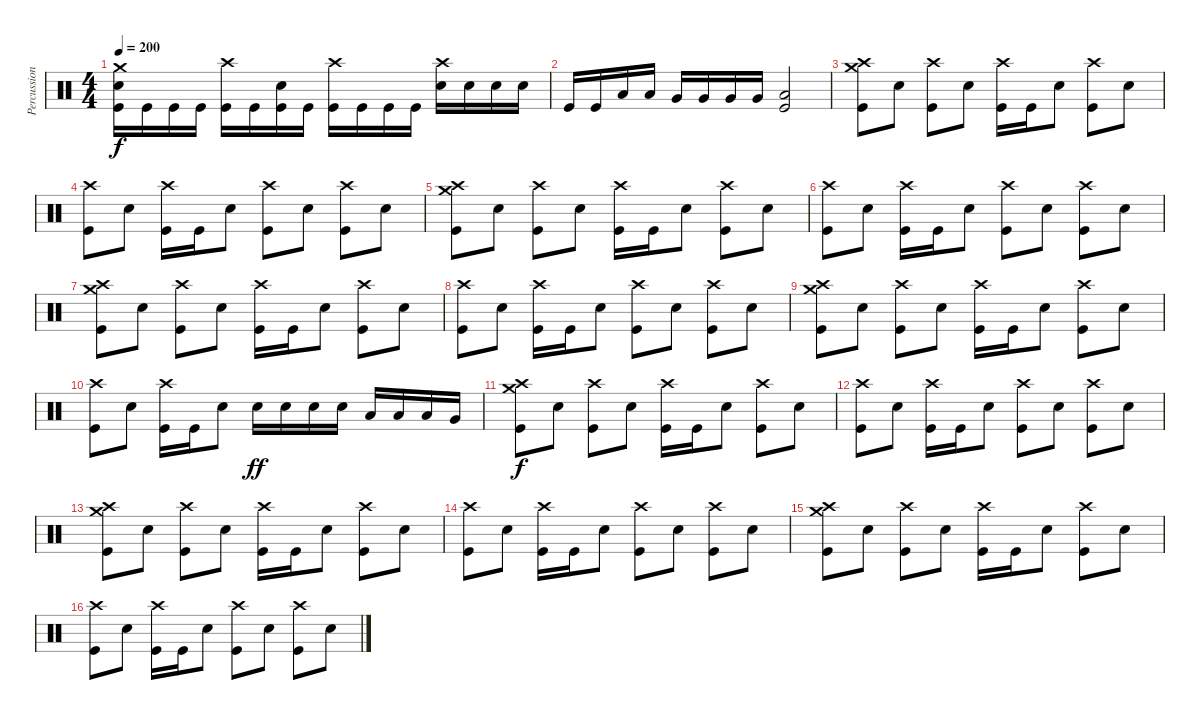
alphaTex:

\track ("Percussion" "Percussion") {instrument percussion}
\staff {score}
\articulation defaults
\ts (4 4)
\tempo 200
\clef neutral
\ks c
("Crash medium (hit)" "Snare (hit) 2" "Kick (hit)").16{dy f} "Kick (hit)".16 "Kick (hit)".16 "Kick (hit)".16 ("Crash high (hit)" "Kick (hit)").16 "Kick (hit)".16 ("Snare (hit) 2" "Kick (hit)").16 "Kick (hit)".16 ("Crash high (hit)" "Kick (hit)").16 "Kick (hit)".16 "Kick (hit)".16 "Kick (hit)".16 ("Crash high (hit)" "Snare (hit) 2").16 "Snare (hit) 2".16 "Snare (hit) 2".16 "Snare (hit) 2".16 |
"Kick (hit)".16 "Kick (hit)".16 "Low Tom (hit)".16 "Low Tom (hit)".16 "Very Low Tom (hit)".16 "Very Low Tom (hit)".16 "Very Low Tom (hit)".16 "Very Low Tom (hit)".16 ("Kick (hit)" "Low Floor Tom (hit)").2 |
("Crash high (hit)" "Kick (hit)" "Crash medium (hit)").8 "Snare (hit) 2".8 ("Crash high (hit)" "Kick (hit)").8 "Snare (hit) 2".8 ("Crash high (hit)" "Kick (hit)").16 "Kick (hit)".16 "Snare (hit) 2".8 ("Crash high (hit)" "Kick (hit)").8 "Snare (hit) 2".8 |
("Crash high (hit)" "Kick (hit)").8 "Snare (hit) 2".8 ("Crash high (hit)" "Kick (hit)").16 "Kick (hit)".16 "Snare (hit) 2".8 ("Crash high (hit)" "Kick (hit)").8 "Snare (hit) 2".8 ("Kick (hit)" "Crash high (hit)").8 "Snare (hit) 2".8 |
("Crash high (hit)" "Kick (hit)" "Crash medium (hit)").8 "Snare (hit) 2".8 ("Crash high (hit)" "Kick (hit)").8 "Snare (hit) 2".8 ("Crash high (hit)" "Kick (hit)").16 "Kick (hit)".16 "Snare (hit) 2".8 ("Crash high (hit)" "Kick (hit)").8 "Snare (hit) 2".8 |
("Crash high (hit)" "Kick (hit)").8 "Snare (hit) 2".8 ("Crash high (hit)" "Kick (hit)").16 "Kick (hit)".16 "Snare (hit) 2".8 ("Crash high (hit)" "Kick (hit)").8 "Snare (hit) 2".8 ("Kick (hit)" "Crash high (hit)").8 "Snare (hit) 2".8 |
("Crash high (hit)" "Kick (hit)" "Crash medium (hit)").8 "Snare (hit) 2".8 ("Crash high (hit)" "Kick (hit)").8 "Snare (hit) 2".8 ("Crash high (hit)" "Kick (hit)").16 "Kick (hit)".16 "Snare (hit) 2".8 ("Crash high (hit)" "Kick (hit)").8 "Snare (hit) 2".8 |
("Crash high (hit)" "Kick (hit)").8 "Snare (hit) 2".8 ("Crash high (hit)" "Kick (hit)").16 "Kick (hit)".16 "Snare (hit) 2".8 ("Crash high (hit)" "Kick (hit)").8 "Snare (hit) 2".8 ("Kick (hit)" "Crash high (hit)").8 "Snare (hit) 2".8 |
("Crash high (hit)" "Kick (hit)" "Crash medium (hit)").8 "Snare (hit) 2".8 ("Crash high (hit)" "Kick (hit)").8 "Snare (hit) 2".8 ("Crash high (hit)" "Kick (hit)").16 "Kick (hit)".16 "Snare (hit) 2".8 ("Crash high (hit)" "Kick (hit)").8 "Snare (hit) 2".8 |
("Crash high (hit)" "Kick (hit)").8 "Snare (hit) 2".8 ("Crash high (hit)" "Kick (hit)").16 "Kick (hit)".16 "Snare (hit) 2".8 "Snare (hit) 2".16{dy ff} "Snare (hit) 2".16 "Snare (hit) 2".16 "Snare (hit) 2".16 "Low Tom (hit)".16 "Low Tom (hit)".16 "Low Tom (hit)".16 "Very Low Tom (hit)".16 |
("Crash high (hit)" "Kick (hit)" "Crash medium (hit)").8{dy f} "Snare (hit) 2".8 ("Crash high (hit)" "Kick (hit)").8 "Snare (hit) 2".8 ("Crash high (hit)" "Kick (hit)").16 "Kick (hit)".16 "Snare (hit) 2".8 ("Crash high (hit)" "Kick (hit)").8 "Snare (hit) 2".8 |
("Crash high (hit)" "Kick (hit)").8 "Snare (hit) 2".8 ("Crash high (hit)" "Kick (hit)").16 "Kick (hit)".16 "Snare (hit) 2".8 ("Crash high (hit)" "Kick (hit)").8 "Snare (hit) 2".8 ("Kick (hit)" "Crash high (hit)").8 "Snare (hit) 2".8 |
("Crash high (hit)" "Kick (hit)" "Crash medium (hit)").8 "Snare (hit) 2".8 ("Crash high (hit)" "Kick (hit)").8 "Snare (hit) 2".8 ("Crash high (hit)" "Kick (hit)").16 "Kick (hit)".16 "Snare (hit) 2".8 ("Crash high (hit)" "Kick (hit)").8 "Snare (hit) 2".8 |
("Crash high (hit)" "Kick (hit)").8 "Snare (hit) 2".8 ("Crash high (hit)" "Kick (hit)").16 "Kick (hit)".16 "Snare (hit) 2".8 ("Crash high (hit)" "Kick (hit)").8 "Snare (hit) 2".8 ("Kick (hit)" "Crash high (hit)").8 "Snare (hit) 2".8 |
("Crash high (hit)" "Kick (hit)" "Crash medium (hit)").8 "Snare (hit) 2".8 ("Crash high (hit)" "Kick (hit)").8 "Snare (hit) 2".8 ("Crash high (hit)" "Kick (hit)").16 "Kick (hit)".16 "Snare (hit) 2".8 ("Crash high (hit)" "Kick (hit)").8 "Snare (hit) 2".8 |
("Crash high (hit)" "Kick (hit)").8 "Snare (hit) 2".8 ("Crash high (hit)" "Kick (hit)").16 "Kick (hit)".16 "Snare (hit) 2".8 ("Crash high (hit)" "Kick (hit)").8 "Snare (hit) 2".8 ("Kick (hit)" "Crash high (hit)").8 "Snare (hit) 2".8
